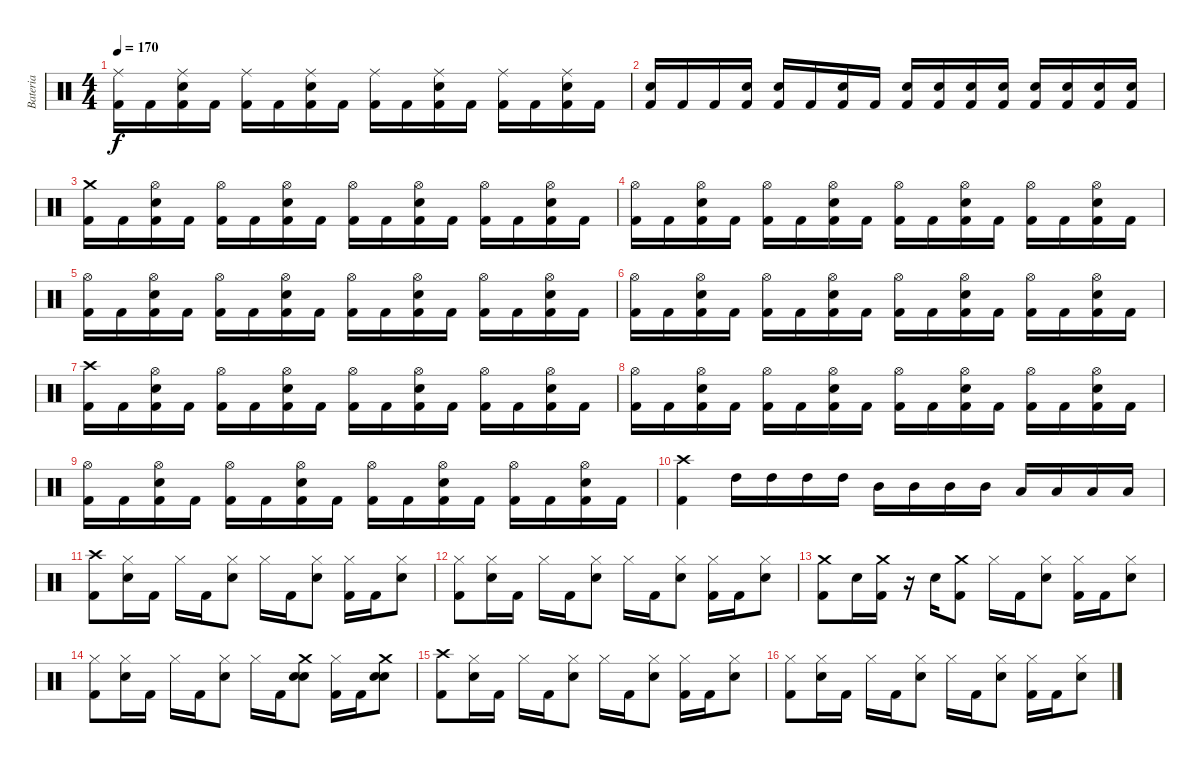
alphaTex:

\track ("Bateria" "Bateria") {instrument percussion}
\staff {score}
\articulation defaults
\ts (4 4)
\tempo 170
\clef neutral
\ks c
("Ride (middle)" "Kick (hit) 2").16{dy f} "Kick (hit) 2".16 ("Ride (middle)" "Kick (hit) 2" "Snare (hit) 2").16 "Kick (hit) 2".16 ("Ride (middle)" "Kick (hit) 2").16 "Kick (hit) 2".16 ("Ride (middle)" "Kick (hit) 2" "Snare (hit) 2").16 "Kick (hit) 2".16 ("Ride (middle)" "Kick (hit) 2").16 "Kick (hit) 2".16 ("Ride (middle)" "Kick (hit) 2" "Snare (hit) 2").16 "Kick (hit) 2".16 ("Ride (middle)" "Kick (hit) 2").16 "Kick (hit) 2".16 ("Ride (middle)" "Kick (hit) 2" "Snare (hit) 2").16 "Kick (hit) 2".16 |
("Kick (hit) 2" "Snare (hit) 2").16 "Kick (hit) 2".16 "Kick (hit) 2".16 ("Kick (hit) 2" "Snare (hit) 2").16 ("Kick (hit) 2" "Snare (hit) 2").16 "Kick (hit) 2".16 ("Kick (hit) 2" "Snare (hit) 2").16 "Kick (hit) 2".16 ("Kick (hit) 2" "Snare (hit) 2").16 ("Kick (hit) 2" "Snare (hit) 2").16 ("Kick (hit) 2" "Snare (hit) 2").16 ("Kick (hit) 2" "Snare (hit) 2").16 ("Kick (hit) 2" "Snare (hit) 2").16 ("Kick (hit) 2" "Snare (hit) 2").16 ("Kick (hit) 2" "Snare (hit) 2").16 ("Kick (hit) 2" "Snare (hit) 2").16 |
("Crash medium (hit)" "Kick (hit) 2").16 "Kick (hit) 2".16 ("Hi-Hat (open)" "Kick (hit) 2" "Snare (hit) 2").16 "Kick (hit) 2".16 ("Hi-Hat (open)" "Kick (hit) 2").16 "Kick (hit) 2".16 ("Hi-Hat (open)" "Kick (hit) 2" "Snare (hit) 2").16 "Kick (hit) 2".16 ("Hi-Hat (open)" "Kick (hit) 2").16 "Kick (hit) 2".16 ("Hi-Hat (open)" "Kick (hit) 2" "Snare (hit) 2").16 "Kick (hit) 2".16 ("Hi-Hat (open)" "Kick (hit) 2").16 "Kick (hit) 2".16 ("Hi-Hat (open)" "Kick (hit) 2" "Snare (hit) 2").16 "Kick (hit) 2".16 |
("Hi-Hat (open)" "Kick (hit) 2").16 "Kick (hit) 2".16 ("Hi-Hat (open)" "Kick (hit) 2" "Snare (hit) 2").16 "Kick (hit) 2".16 ("Hi-Hat (open)" "Kick (hit) 2").16 "Kick (hit) 2".16 ("Hi-Hat (open)" "Kick (hit) 2" "Snare (hit) 2").16 "Kick (hit) 2".16 ("Hi-Hat (open)" "Kick (hit) 2").16 "Kick (hit) 2".16 ("Hi-Hat (open)" "Kick (hit) 2" "Snare (hit) 2").16 "Kick (hit) 2".16 ("Hi-Hat (open)" "Kick (hit) 2").16 "Kick (hit) 2".16 ("Hi-Hat (open)" "Kick (hit) 2" "Snare (hit) 2").16 "Kick (hit) 2".16 |
("Hi-Hat (open)" "Kick (hit) 2").16 "Kick (hit) 2".16 ("Hi-Hat (open)" "Kick (hit) 2" "Snare (hit) 2").16 "Kick (hit) 2".16 ("Hi-Hat (open)" "Kick (hit) 2").16 "Kick (hit) 2".16 ("Hi-Hat (open)" "Kick (hit) 2" "Snare (hit) 2").16 "Kick (hit) 2".16 ("Hi-Hat (open)" "Kick (hit) 2").16 "Kick (hit) 2".16 ("Hi-Hat (open)" "Kick (hit) 2" "Snare (hit) 2").16 "Kick (hit) 2".16 ("Hi-Hat (open)" "Kick (hit) 2").16 "Kick (hit) 2".16 ("Hi-Hat (open)" "Kick (hit) 2" "Snare (hit) 2").16 "Kick (hit) 2".16 |
("Hi-Hat (open)" "Kick (hit) 2").16 "Kick (hit) 2".16 ("Hi-Hat (open)" "Kick (hit) 2" "Snare (hit) 2").16 "Kick (hit) 2".16 ("Hi-Hat (open)" "Kick (hit) 2").16 "Kick (hit) 2".16 ("Hi-Hat (open)" "Kick (hit) 2" "Snare (hit) 2").16 "Kick (hit) 2".16 ("Hi-Hat (open)" "Kick (hit) 2").16 "Kick (hit) 2".16 ("Hi-Hat (open)" "Kick (hit) 2" "Snare (hit) 2").16 "Kick (hit) 2".16 ("Hi-Hat (open)" "Kick (hit) 2").16 "Kick (hit) 2".16 ("Hi-Hat (open)" "Kick (hit) 2" "Snare (hit) 2").16 "Kick (hit) 2".16 |
("Crash high (hit)" "Kick (hit) 2").16 "Kick (hit) 2".16 ("Hi-Hat (open)" "Kick (hit) 2" "Snare (hit) 2").16 "Kick (hit) 2".16 ("Hi-Hat (open)" "Kick (hit) 2").16 "Kick (hit) 2".16 ("Hi-Hat (open)" "Kick (hit) 2" "Snare (hit) 2").16 "Kick (hit) 2".16 ("Hi-Hat (open)" "Kick (hit) 2").16 "Kick (hit) 2".16 ("Hi-Hat (open)" "Kick (hit) 2" "Snare (hit) 2").16 "Kick (hit) 2".16 ("Hi-Hat (open)" "Kick (hit) 2").16 "Kick (hit) 2".16 ("Hi-Hat (open)" "Kick (hit) 2" "Snare (hit) 2").16 "Kick (hit) 2".16 |
("Hi-Hat (open)" "Kick (hit) 2").16 "Kick (hit) 2".16 ("Hi-Hat (open)" "Kick (hit) 2" "Snare (hit) 2").16 "Kick (hit) 2".16 ("Hi-Hat (open)" "Kick (hit) 2").16 "Kick (hit) 2".16 ("Hi-Hat (open)" "Kick (hit) 2" "Snare (hit) 2").16 "Kick (hit) 2".16 ("Hi-Hat (open)" "Kick (hit) 2").16 "Kick (hit) 2".16 ("Hi-Hat (open)" "Kick (hit) 2" "Snare (hit) 2").16 "Kick (hit) 2".16 ("Hi-Hat (open)" "Kick (hit) 2").16 "Kick (hit) 2".16 ("Hi-Hat (open)" "Kick (hit) 2" "Snare (hit) 2").16 "Kick (hit) 2".16 |
("Hi-Hat (open)" "Kick (hit) 2").16 "Kick (hit) 2".16 ("Hi-Hat (open)" "Kick (hit) 2" "Snare (hit) 2").16 "Kick (hit) 2".16 ("Hi-Hat (open)" "Kick (hit) 2").16 "Kick (hit) 2".16 ("Hi-Hat (open)" "Kick (hit) 2" "Snare (hit) 2").16 "Kick (hit) 2".16 ("Hi-Hat (open)" "Kick (hit) 2").16 "Kick (hit) 2".16 ("Hi-Hat (open)" "Kick (hit) 2" "Snare (hit) 2").16 "Kick (hit) 2".16 ("Hi-Hat (open)" "Kick (hit) 2").16 "Kick (hit) 2".16 ("Hi-Hat (open)" "Kick (hit) 2" "Snare (hit) 2").16 "Kick (hit) 2".16 |
("Crash high (hit)" "Kick (hit) 2").4 "High Tom (hit)".16 "High Tom (hit)".16 "High Tom (hit)".16 "High Tom (hit)".16 "Mid Tom (hit)".16 "Mid Tom (hit)".16 "Mid Tom (hit)".16 "Mid Tom (hit)".16 "Low Tom (hit)".16 "Low Tom (hit)".16 "Low Tom (hit)".16 "Low Tom (hit)".16 |
("Crash high (hit)" "Kick (hit) 2").8 ("Hi-Hat (closed)" "Snare (hit) 2").16 "Kick (hit) 2".16 "Hi-Hat (closed)".16 "Kick (hit) 2".16 ("Hi-Hat (closed)" "Snare (hit) 2").8 "Hi-Hat (closed)".16 "Kick (hit) 2".16 ("Hi-Hat (closed)" "Snare (hit) 2").8 ("Hi-Hat (closed)" "Kick (hit) 2").16 "Kick (hit) 2".16 ("Hi-Hat (closed)" "Snare (hit) 2").8 |
("Hi-Hat (closed)" "Kick (hit) 2").8 ("Hi-Hat (closed)" "Snare (hit) 2").16 "Kick (hit) 2".16 "Hi-Hat (closed)".16 "Kick (hit) 2".16 ("Hi-Hat (closed)" "Snare (hit) 2").8 "Hi-Hat (closed)".16 "Kick (hit) 2".16 ("Hi-Hat (closed)" "Snare (hit) 2").8 ("Hi-Hat (closed)" "Kick (hit) 2").16 "Kick (hit) 2".16 ("Hi-Hat (closed)" "Snare (hit) 2").8 |
("Crash medium (hit)" "Kick (hit) 2").8 "Snare (hit) 2".16 ("Crash medium (hit)" "Kick (hit) 2").16 r.16 "Snare (hit) 2".16 ("Crash medium (hit)" "Kick (hit) 2").8 "Hi-Hat (closed)".16 "Kick (hit) 2".16 ("Hi-Hat (closed)" "Snare (hit) 2").8 ("Hi-Hat (closed)" "Kick (hit) 2").16 "Kick (hit) 2".16 ("Hi-Hat (closed)" "Snare (hit) 2").8 |
("Hi-Hat (closed)" "Kick (hit) 2").8 ("Hi-Hat (closed)" "Snare (hit) 2").16 "Kick (hit) 2".16 "Hi-Hat (closed)".16 "Kick (hit) 2".16 ("Hi-Hat (closed)" "Snare (hit) 2").8 "Hi-Hat (closed)".16 "Kick (hit) 2".16 ("Crash medium (hit)" "Electric Snare (hit)" "Snare (hit) 2").8 ("Hi-Hat (closed)" "Kick (hit) 2").16 "Kick (hit) 2".16 ("Crash medium (hit)" "Electric Snare (hit)" "Snare (hit) 2").8 |
("Crash high (hit)" "Kick (hit) 2").8 ("Hi-Hat (closed)" "Snare (hit) 2").16 "Kick (hit) 2".16 "Hi-Hat (closed)".16 "Kick (hit) 2".16 ("Hi-Hat (closed)" "Snare (hit) 2").8 "Hi-Hat (closed)".16 "Kick (hit) 2".16 ("Hi-Hat (closed)" "Snare (hit) 2").8 ("Hi-Hat (closed)" "Kick (hit) 2").16 "Kick (hit) 2".16 ("Hi-Hat (closed)" "Snare (hit) 2").8 |
("Hi-Hat (closed)" "Kick (hit) 2").8 ("Hi-Hat (closed)" "Snare (hit) 2").16 "Kick (hit) 2".16 "Hi-Hat (closed)".16 "Kick (hit) 2".16 ("Hi-Hat (closed)" "Snare (hit) 2").8 "Hi-Hat (closed)".16 "Kick (hit) 2".16 ("Hi-Hat (closed)" "Snare (hit) 2").8 ("Hi-Hat (closed)" "Kick (hit) 2").16 "Kick (hit) 2".16 ("Hi-Hat (closed)" "Snare (hit) 2").8
